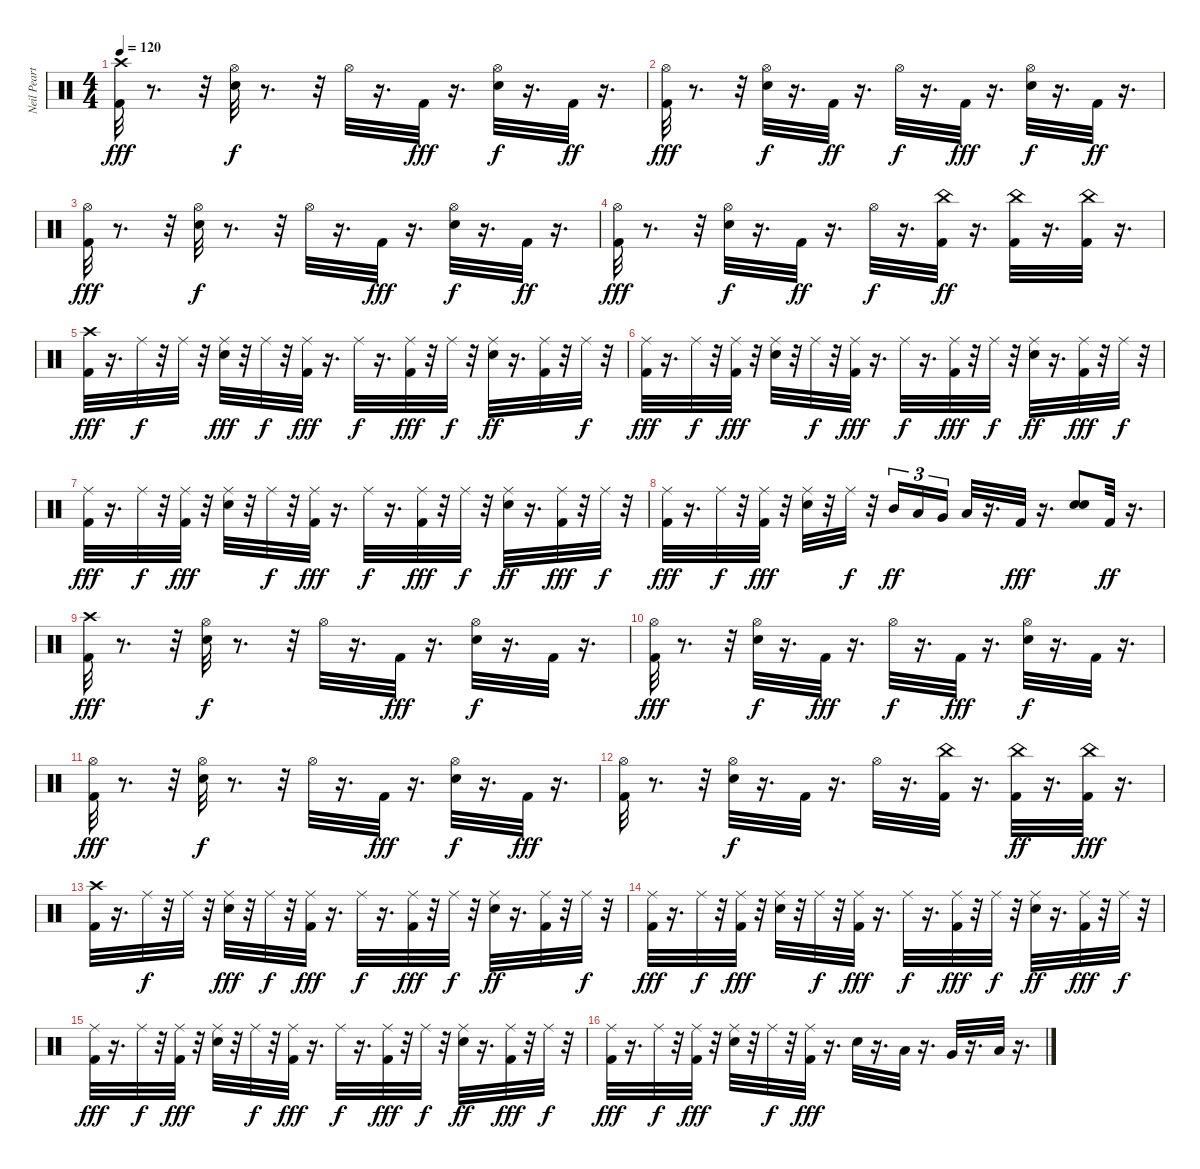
\track ("Neil Peart" "Neil Peart") {instrument percussion}
\staff {score}
\articulation defaults
\ts (4 4)
\tempo 120
\clef neutral
\ks c
("Kick (hit) 2" "Crash high (hit)").32{dy fff} r.8{d} r.32 ("Snare (hit) 2" "Hi-Hat (open)").32{dy f} r.8{d} r.32 "Hi-Hat (open)".32 r.16{d} "Kick (hit) 2".32{dy fff} r.16{d} ("Snare (hit) 2" "Hi-Hat (open)").32{dy f} r.16{d} "Kick (hit) 2".32{dy ff} r.16{d} |
("Hi-Hat (open)" "Kick (hit) 2").32{dy fff} r.8{d} r.32 ("Hi-Hat (open)" "Snare (hit) 2").32{dy f} r.16{d} "Kick (hit) 2".32{dy ff} r.16{d} "Hi-Hat (open)".32{dy f} r.16{d} "Kick (hit) 2".32{dy fff} r.16{d} ("Hi-Hat (open)" "Snare (hit) 2").32{dy f} r.16{d} "Kick (hit) 2".32{dy ff} r.16{d} |
("Hi-Hat (open)" "Kick (hit) 2").32{dy fff} r.8{d} r.32 ("Hi-Hat (open)" "Snare (hit) 2").32{dy f} r.8{d} r.32 "Hi-Hat (open)".32 r.16{d} "Kick (hit) 2".32{dy fff} r.16{d} ("Hi-Hat (open)" "Snare (hit) 2").32{dy f} r.16{d} "Kick (hit) 2".32{dy ff} r.16{d} |
("Hi-Hat (open)" "Kick (hit) 2").32{dy fff} r.8{d} r.32 ("Hi-Hat (open)" "Snare (hit) 2").32{dy f} r.16{d} "Kick (hit) 2".32{dy ff} r.16{d} "Hi-Hat (open)".32{dy f} r.16{d} ("China (hit)" "Kick (hit) 2").32{dy ff} r.16{d} ("China (hit)" "Kick (hit) 2").32 r.16{d} ("China (hit)" "Kick (hit) 2").32 r.16{d} |
("Crash high (hit)" "Kick (hit) 2").32{dy fff} r.16{d} "Ride (middle)".32{dy f} r.32 "Ride (middle)".32 r.32 ("Ride (middle)" "Snare (hit) 2").32{dy fff} r.32 "Ride (middle)".32{dy f} r.32 ("Ride (middle)" "Kick (hit) 2").32{dy fff} r.16{d} "Ride (middle)".32{dy f} r.16{d} ("Ride (middle)" "Kick (hit) 2").32{dy fff} r.32 "Ride (middle)".32{dy f} r.32 ("Ride (middle)" "Snare (hit) 2").32{dy ff} r.16{d} ("Ride (middle)" "Kick (hit) 2").32 r.32 "Ride (middle)".32{dy f} r.32 |
("Ride (middle)" "Kick (hit) 2").32{dy fff} r.16{d} "Ride (middle)".32{dy f} r.32 ("Ride (middle)" "Kick (hit) 2").32{dy fff} r.32 ("Ride (middle)" "Snare (hit) 2").32 r.32 "Ride (middle)".32{dy f} r.32 ("Ride (middle)" "Kick (hit) 2").32{dy fff} r.16{d} "Ride (middle)".32{dy f} r.16{d} ("Ride (middle)" "Kick (hit) 2").32{dy fff} r.32 "Ride (middle)".32{dy f} r.32 ("Ride (middle)" "Snare (hit) 2").32{dy ff} r.16{d} ("Ride (middle)" "Kick (hit) 2").32{dy fff} r.32 "Ride (middle)".32{dy f} r.32 |
("Ride (middle)" "Kick (hit) 2").32{dy fff} r.16{d} "Ride (middle)".32{dy f} r.32 ("Ride (middle)" "Kick (hit) 2").32{dy fff} r.32 ("Ride (middle)" "Snare (hit) 2").32 r.32 "Ride (middle)".32{dy f} r.32 ("Ride (middle)" "Kick (hit) 2").32{dy fff} r.16{d} "Ride (middle)".32{dy f} r.16{d} ("Ride (middle)" "Kick (hit) 2").32{dy fff} r.32 "Ride (middle)".32{dy f} r.32 ("Ride (middle)" "Snare (hit) 2").32{dy ff} r.16{d} ("Ride (middle)" "Kick (hit) 2").32{dy fff} r.32 "Ride (middle)".32{dy f} r.32 |
("Ride (middle)" "Kick (hit) 2").32{dy fff} r.16{d} "Ride (middle)".32{dy f} r.32 ("Ride (middle)" "Kick (hit) 2").32{dy fff} r.32 ("Ride (middle)" "Snare (hit) 2").32 r.32 "Ride (middle)".32{dy f} r.32 "Mid Tom (hit)".16{tu (3 2) dy ff} "Low Tom (hit)".16{tu (3 2)} "Very Low Tom (hit)".16{tu (3 2)} "Low Floor Tom (hit)".32 r.16{d} "Kick (hit) 2".32{dy fff} r.16{d} ("Snare (hit) 2" "Snare (hit) 2").8 "Kick (hit) 2".32{dy ff} r.16{d} |
("Crash high (hit)" "Kick (hit) 2").32{dy fff} r.8{d} r.32 ("Hi-Hat (open)" "Snare (hit) 2").32{dy f} r.8{d} r.32 "Hi-Hat (open)".32 r.16{d} "Kick (hit) 2".32{dy fff} r.16{d} ("Hi-Hat (open)" "Snare (hit) 2").32{dy f} r.16{d} "Kick (hit) 2".32 r.16{d} |
("Hi-Hat (open)" "Kick (hit) 2").32{dy fff} r.8{d} r.32 ("Hi-Hat (open)" "Snare (hit) 2").32{dy f} r.16{d} "Kick (hit) 2".32{dy fff} r.16{d} "Hi-Hat (open)".32{dy f} r.16{d} "Kick (hit) 2".32{dy fff} r.16{d} ("Hi-Hat (open)" "Snare (hit) 2").32{dy f} r.16{d} "Kick (hit) 2".32 r.16{d} |
("Hi-Hat (open)" "Kick (hit) 2").32{dy fff} r.8{d} r.32 ("Hi-Hat (open)" "Snare (hit) 2").32{dy f} r.8{d} r.32 "Hi-Hat (open)".32 r.16{d} "Kick (hit) 2".32{dy fff} r.16{d} ("Hi-Hat (open)" "Snare (hit) 2").32{dy f} r.16{d} "Kick (hit) 2".32{dy fff} r.16{d} |
("Hi-Hat (open)" "Kick (hit) 2").32 r.8{d} r.32 ("Hi-Hat (open)" "Snare (hit) 2").32{dy f} r.16{d} "Kick (hit) 2".32 r.16{d} "Hi-Hat (open)".32 r.16{d} ("Kick (hit) 2" "China (hit)").32 r.16{d} ("Kick (hit) 2" "China (hit)").32{dy ff} r.16{d} ("China (hit)" "Kick (hit) 2").32{dy fff} r.16{d} |
("Crash high (hit)" "Kick (hit) 2").32 r.16{d} "Ride (middle)".32{dy f} r.32 "Ride (middle)".32 r.32 ("Ride (middle)" "Snare (hit) 2").32{dy fff} r.32 "Ride (middle)".32{dy f} r.32 ("Ride (middle)" "Kick (hit) 2").32{dy fff} r.16{d} "Ride (middle)".32{dy f} r.16{d} ("Ride (middle)" "Kick (hit) 2").32{dy fff} r.32 "Ride (middle)".32{dy f} r.32 ("Ride (middle)" "Snare (hit) 2").32{dy ff} r.16{d} ("Ride (middle)" "Kick (hit) 2").32 r.32 "Ride (middle)".32{dy f} r.32 |
("Ride (middle)" "Kick (hit) 2").32{dy fff} r.16{d} "Ride (middle)".32{dy f} r.32 ("Ride (middle)" "Kick (hit) 2").32{dy fff} r.32 ("Ride (middle)" "Snare (hit) 2").32 r.32 "Ride (middle)".32{dy f} r.32 ("Ride (middle)" "Kick (hit) 2").32{dy fff} r.16{d} "Ride (middle)".32{dy f} r.16{d} ("Ride (middle)" "Kick (hit) 2").32{dy fff} r.32 "Ride (middle)".32{dy f} r.32 ("Ride (middle)" "Snare (hit) 2").32{dy ff} r.16{d} ("Ride (middle)" "Kick (hit) 2").32{dy fff} r.32 "Ride (middle)".32{dy f} r.32 |
("Ride (middle)" "Kick (hit) 2").32{dy fff} r.16{d} "Ride (middle)".32{dy f} r.32 ("Ride (middle)" "Kick (hit) 2").32{dy fff} r.32 ("Ride (middle)" "Snare (hit) 2").32 r.32 "Ride (middle)".32{dy f} r.32 ("Ride (middle)" "Kick (hit) 2").32{dy fff} r.16{d} "Ride (middle)".32{dy f} r.16{d} ("Ride (middle)" "Kick (hit) 2").32{dy fff} r.32 "Ride (middle)".32{dy f} r.32 ("Ride (middle)" "Snare (hit) 2").32{dy ff} r.16{d} ("Ride (middle)" "Kick (hit) 2").32{dy fff} r.32 "Ride (middle)".32{dy f} r.32 |
("Ride (middle)" "Kick (hit) 2").32{dy fff} r.16{d} "Ride (middle)".32{dy f} r.32 ("Ride (middle)" "Kick (hit) 2").32{dy fff} r.32 ("Ride (middle)" "Snare (hit) 2").32 r.32 "Ride (middle)".32{dy f} r.32 ("Ride (middle)" "Kick (hit) 2").32{dy fff} r.16{d} "Snare (hit) 2".32 r.16{d} "Low Tom (hit)".32 r.16{d} "Very Low Tom (hit)".32 r.16{d} "Low Floor Tom (hit)".32 r.16{d}
